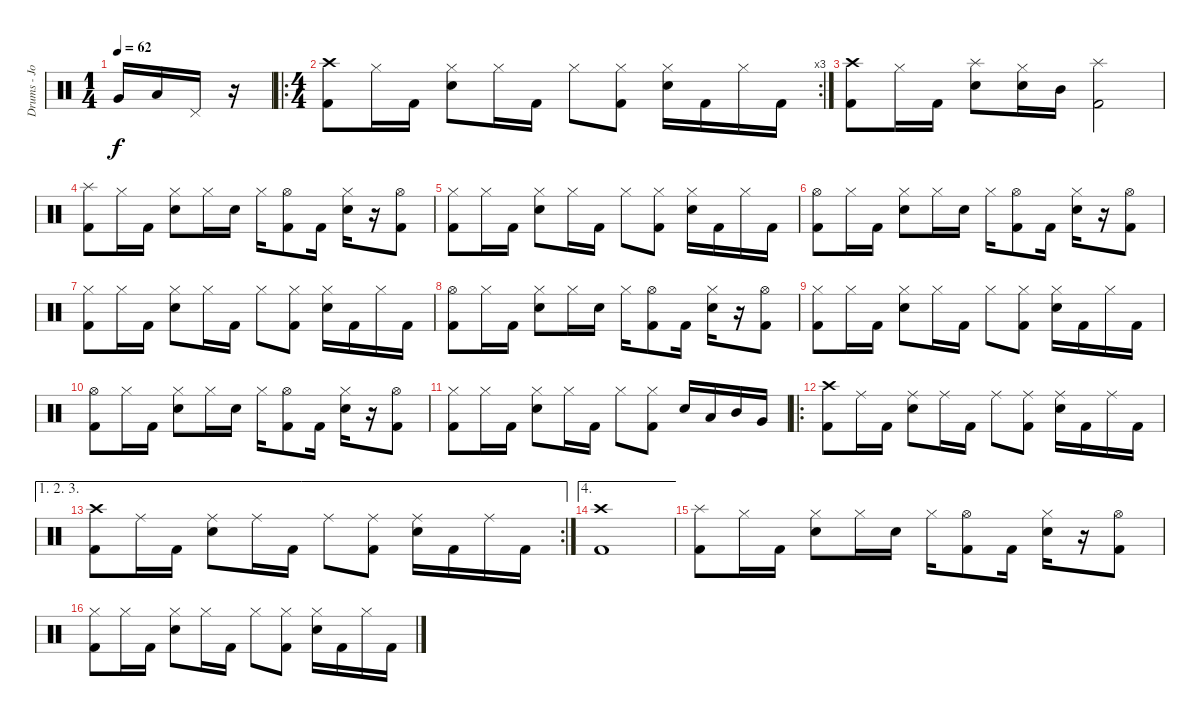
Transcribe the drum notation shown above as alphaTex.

\track ("Drums - Jon Wysocki" "Drums - Jo") {instrument percussion}
\staff {score}
\articulation defaults
\ts (1 4)
\tempo 62
\clef neutral
\ks c "Very Low Tom (hit)".16{dy f} "Low Floor Tom (hit)".16 "Pedal Hi-Hat (hit)".16
r.16 |
\ro
\rc 3
\ts (4 4)
("Crash high (hit)" "Kick (hit) 2").8 "Hi-Hat (closed)".16 "Kick (hit) 2".16 ("Hi-Hat (closed)" "Electric Snare (hit)").8 "Hi-Hat (closed)".16 "Kick (hit) 2".16 "Hi-Hat (closed)".8 ("Hi-Hat (closed)" "Kick (hit) 2").8 ("Hi-Hat (closed)" "Electric Snare (hit)").16 "Kick (hit) 2".16 "Hi-Hat (closed)".16 "Kick (hit) 2".16 |
("Crash high (hit)" "Kick (hit) 2").8 "Hi-Hat (closed)".16 "Kick (hit) 2".16 ("Splash (hit)" "Electric Snare (hit)").8 ("Hi-Hat (closed)" "Electric Snare (hit)").16 "Mid Tom (hit)".16 ("Splash (hit)" "Kick (hit) 2").2 |
("Splash (hit)" "Kick (hit) 2").8 "Hi-Hat (closed)".16 "Kick (hit) 2".16 ("Hi-Hat (closed)" "Electric Snare (hit)").8 "Hi-Hat (closed)".16 "Electric Snare (hit)".16 "Hi-Hat (closed)".16 ("Hi-Hat (open)" "Kick (hit) 2").8 "Kick (hit) 2".16 ("Hi-Hat (closed)" "Electric Snare (hit)").16 r.16 ("Hi-Hat (open)" "Kick (hit) 2").8 |
("Hi-Hat (closed)" "Kick (hit) 2").8 "Hi-Hat (closed)".16 "Kick (hit) 2".16 ("Hi-Hat (closed)" "Electric Snare (hit)").8 "Hi-Hat (closed)".16 "Kick (hit) 2".16 "Hi-Hat (closed)".8 ("Hi-Hat (closed)" "Kick (hit) 2").8 ("Hi-Hat (closed)" "Electric Snare (hit)").16 "Kick (hit) 2".16 "Hi-Hat (closed)".16 "Kick (hit) 2".16 |
("Hi-Hat (open)" "Kick (hit) 2").8 "Hi-Hat (closed)".16 "Kick (hit) 2".16 ("Hi-Hat (closed)" "Electric Snare (hit)").8 "Hi-Hat (closed)".16 "Electric Snare (hit)".16 "Hi-Hat (closed)".16 ("Hi-Hat (open)" "Kick (hit) 2").8 "Kick (hit) 2".16 ("Hi-Hat (closed)" "Electric Snare (hit)").16 r.16 ("Hi-Hat (open)" "Kick (hit) 2").8 |
("Hi-Hat (closed)" "Kick (hit) 2").8 "Hi-Hat (closed)".16 "Kick (hit) 2".16 ("Hi-Hat (closed)" "Electric Snare (hit)").8 "Hi-Hat (closed)".16 "Kick (hit) 2".16 "Hi-Hat (closed)".8 ("Hi-Hat (closed)" "Kick (hit) 2").8 ("Hi-Hat (closed)" "Electric Snare (hit)").16 "Kick (hit) 2".16 "Hi-Hat (closed)".16 "Kick (hit) 2".16 |
("Hi-Hat (open)" "Kick (hit) 2").8 "Hi-Hat (closed)".16 "Kick (hit) 2".16 ("Hi-Hat (closed)" "Electric Snare (hit)").8 "Hi-Hat (closed)".16 "Electric Snare (hit)".16 "Hi-Hat (closed)".16 ("Hi-Hat (open)" "Kick (hit) 2").8 "Kick (hit) 2".16 ("Hi-Hat (closed)" "Electric Snare (hit)").16 r.16 ("Hi-Hat (open)" "Kick (hit) 2").8 |
("Hi-Hat (closed)" "Kick (hit) 2").8 "Hi-Hat (closed)".16 "Kick (hit) 2".16 ("Hi-Hat (closed)" "Electric Snare (hit)").8 "Hi-Hat (closed)".16 "Kick (hit) 2".16 "Hi-Hat (closed)".8 ("Hi-Hat (closed)" "Kick (hit) 2").8 ("Hi-Hat (closed)" "Electric Snare (hit)").16 "Kick (hit) 2".16 "Hi-Hat (closed)".16 "Kick (hit) 2".16 |
("Hi-Hat (open)" "Kick (hit) 2").8 "Hi-Hat (closed)".16 "Kick (hit) 2".16 ("Hi-Hat (closed)" "Electric Snare (hit)").8 "Hi-Hat (closed)".16 "Electric Snare (hit)".16 "Hi-Hat (closed)".16 ("Hi-Hat (open)" "Kick (hit) 2").8 "Kick (hit) 2".16 ("Hi-Hat (closed)" "Electric Snare (hit)").16 r.16 ("Hi-Hat (open)" "Kick (hit) 2").8 |
("Hi-Hat (closed)" "Kick (hit) 2").8 "Hi-Hat (closed)".16 "Kick (hit) 2".16 ("Hi-Hat (closed)" "Electric Snare (hit)").8 "Hi-Hat (closed)".16 "Kick (hit) 2".16 "Hi-Hat (closed)".8 ("Hi-Hat (closed)" "Kick (hit) 2").8 "Electric Snare (hit)".16 "Low Tom (hit)".16 "Mid Tom (hit)".16 "Very Low Tom (hit)".16 |
\ro
("Crash high (hit)" "Kick (hit) 2").8 "Ride (middle)".16 "Kick (hit) 2".16 ("Ride (middle)" "Electric Snare (hit)").8 "Ride (middle)".16 "Kick (hit) 2".16 "Ride (middle)".8 ("Ride (middle)" "Kick (hit) 2").8 ("Ride (middle)" "Electric Snare (hit)").16 "Kick (hit) 2".16 "Ride (middle)".16 "Kick (hit) 2".16 |
\ae (1 2 3)
\rc 2
("Crash high (hit)" "Kick (hit) 2").8 "Ride (middle)".16 "Kick (hit) 2".16 ("Ride (middle)" "Electric Snare (hit)").8 "Ride (middle)".16 "Kick (hit) 2".16 "Ride (middle)".8 ("Ride (middle)" "Kick (hit) 2").8 ("Ride (middle)" "Electric Snare (hit)").16 "Kick (hit) 2".16 "Ride (middle)".16 "Kick (hit) 2".16 |
\ae 4
("Crash high (hit)" "Kick (hit) 2").1 |
("Splash (hit)" "Kick (hit) 2").8 "Hi-Hat (closed)".16 "Kick (hit) 2".16 ("Hi-Hat (closed)" "Electric Snare (hit)").8 "Hi-Hat (closed)".16 "Electric Snare (hit)".16 "Hi-Hat (closed)".16 ("Hi-Hat (open)" "Kick (hit) 2").8 "Kick (hit) 2".16 ("Hi-Hat (closed)" "Electric Snare (hit)").16 r.16 ("Hi-Hat (open)" "Kick (hit) 2").8 |
("Hi-Hat (closed)" "Kick (hit) 2").8 "Hi-Hat (closed)".16 "Kick (hit) 2".16 ("Hi-Hat (closed)" "Electric Snare (hit)").8 "Hi-Hat (closed)".16 "Kick (hit) 2".16 "Hi-Hat (closed)".8 ("Hi-Hat (closed)" "Kick (hit) 2").8 ("Hi-Hat (closed)" "Electric Snare (hit)").16 "Kick (hit) 2".16 "Hi-Hat (closed)".16 "Kick (hit) 2".16
